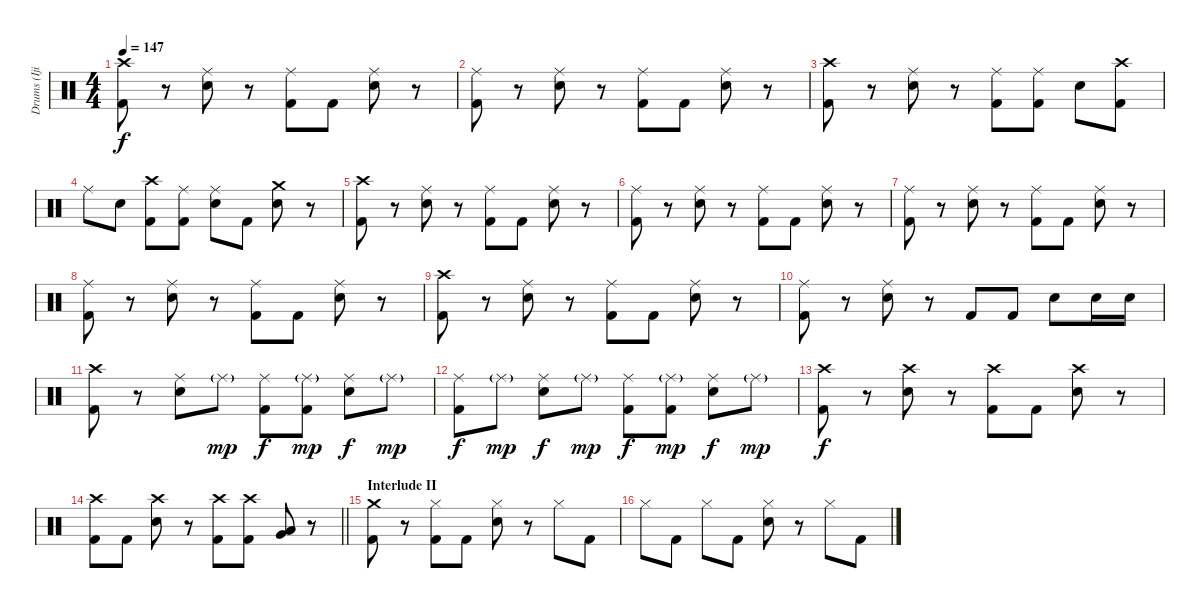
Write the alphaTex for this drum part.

\track ("Drums (Ijichi)" "Drums (Iji") {instrument percussion}
\staff {score}
\articulation defaults
\ts (4 4)
\tempo 147
\clef neutral
\ks c
("Crash high (hit)" "Kick (hit) 2").8{dy f} r.8 ("Ride (middle)" "Snare (hit) 2").8 r.8 ("Ride (middle)" "Kick (hit) 2").8 "Kick (hit) 2".8 ("Ride (middle)" "Snare (hit) 2").8 r.8 |
("Ride (middle)" "Kick (hit) 2").8 r.8 ("Ride (middle)" "Snare (hit) 2").8 r.8 ("Ride (middle)" "Kick (hit) 2").8 "Kick (hit) 2".8 ("Ride (middle)" "Snare (hit) 2").8 r.8 |
("Crash high (hit)" "Kick (hit) 2").8 r.8 ("Ride (middle)" "Snare (hit) 2").8 r.8 ("Ride (middle)" "Kick (hit) 2").8 ("Ride (middle)" "Kick (hit) 2").8 "Snare (hit) 2".8 ("Crash high (hit)" "Kick (hit) 2").8 |
"Ride (middle)".8 "Snare (hit) 2".8 ("Crash high (hit)" "Kick (hit) 2").8 ("Ride (middle)" "Kick (hit) 2").8 ("Ride (middle)" "Snare (hit) 2").8 "Kick (hit) 2".8 ("Crash medium (hit)" "Snare (hit) 2").8 r.8 |
("Crash high (hit)" "Kick (hit) 2").8 r.8 ("Ride (middle)" "Snare (hit) 2").8 r.8 ("Ride (middle)" "Kick (hit) 2").8 "Kick (hit) 2".8 ("Ride (middle)" "Snare (hit) 2").8 r.8 |
("Ride (middle)" "Kick (hit) 2").8 r.8 ("Ride (middle)" "Snare (hit) 2").8 r.8 ("Ride (middle)" "Kick (hit) 2").8 "Kick (hit) 2".8 ("Ride (middle)" "Snare (hit) 2").8 r.8 |
("Ride (middle)" "Kick (hit) 2").8 r.8 ("Ride (middle)" "Snare (hit) 2").8 r.8 ("Ride (middle)" "Kick (hit) 2").8 "Kick (hit) 2".8 ("Ride (middle)" "Snare (hit) 2").8 r.8 |
("Ride (middle)" "Kick (hit) 2").8 r.8 ("Ride (middle)" "Snare (hit) 2").8 r.8 ("Ride (middle)" "Kick (hit) 2").8 "Kick (hit) 2".8 ("Ride (middle)" "Snare (hit) 2").8 r.8 |
("Crash high (hit)" "Kick (hit) 2").8 r.8 ("Ride (middle)" "Snare (hit) 2").8 r.8 ("Ride (middle)" "Kick (hit) 2").8 "Kick (hit) 2".8 ("Ride (middle)" "Snare (hit) 2").8 r.8 |
("Ride (middle)" "Kick (hit) 2").8 r.8 ("Ride (middle)" "Snare (hit) 2").8 r.8 "Kick (hit) 2".8 "Kick (hit) 2".8 "Snare (hit) 2".8 "Snare (hit) 2".16 "Snare (hit) 2".16 |
("Crash high (hit)" "Kick (hit) 2").8 r.8 ("Ride (middle)" "Snare (hit) 2").8 "Ride (middle)"{g}.8{dy mp} ("Ride (middle)" "Kick (hit) 2").8{dy f} ("Ride (middle)"{g} "Kick (hit) 2").8{dy mp} ("Ride (middle)" "Snare (hit) 2").8{dy f} "Ride (middle)"{g}.8{dy mp} |
("Ride (middle)" "Kick (hit) 2").8{dy f} "Ride (middle)"{g}.8{dy mp} ("Ride (middle)" "Snare (hit) 2").8{dy f} "Ride (middle)"{g}.8{dy mp} ("Ride (middle)" "Kick (hit) 2").8{dy f} ("Ride (middle)"{g} "Kick (hit) 2").8{dy mp} ("Ride (middle)" "Snare (hit) 2").8{dy f} "Ride (middle)"{g}.8{dy mp} |
("Crash high (hit)" "Kick (hit) 2").8{dy f} r.8 ("Crash high (hit)" "Snare (hit) 2").8 r.8 ("Crash high (hit)" "Kick (hit) 2").8 "Kick (hit) 2".8 ("Crash high (hit)" "Snare (hit) 2").8 r.8 |
\barLineRight lightlight
("Crash high (hit)" "Kick (hit) 2").8 "Kick (hit) 2".8 ("Crash high (hit)" "Snare (hit) 2").8 r.8 ("Crash high (hit)" "Kick (hit) 2").8 ("Crash high (hit)" "Kick (hit) 2").8 ("Low Tom (hit)" "Very Low Tom (hit)").8 r.8 |
\section ("" "Interlude II")
("Crash medium (hit)" "Kick (hit) 2").8 r.8 ("Hi-Hat (closed)" "Kick (hit) 2").8 "Kick (hit) 2".8 ("Hi-Hat (closed)" "Snare (hit) 2").8 r.8 "Hi-Hat (closed)".8 "Kick (hit) 2".8 |
"Hi-Hat (closed)".8 "Kick (hit) 2".8 "Hi-Hat (closed)".8 "Kick (hit) 2".8 ("Hi-Hat (closed)" "Snare (hit) 2").8 r.8 "Hi-Hat (closed)".8 "Kick (hit) 2".8
